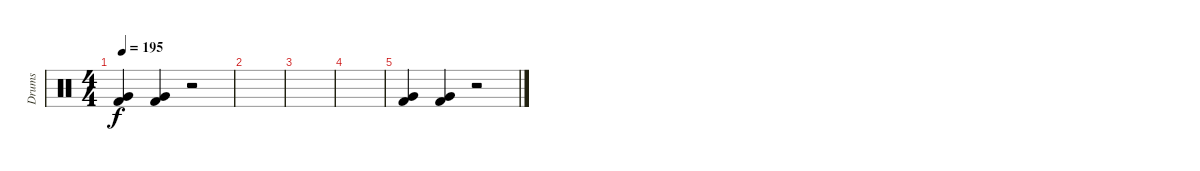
\track ("Drums" "Drums") {instrument percussion}
\staff {score}
\articulation defaults
\ts (4 4)
\tempo 195
\clef neutral
\ks c
("Very Low Tom (hit)" "Kick (hit) 2").4{dy f} ("Very Low Tom (hit)" "Kick (hit) 2").4 r.2 |
|
|
|
("Very Low Tom (hit)" "Kick (hit) 2").4 ("Very Low Tom (hit)" "Kick (hit) 2").4 r.2
